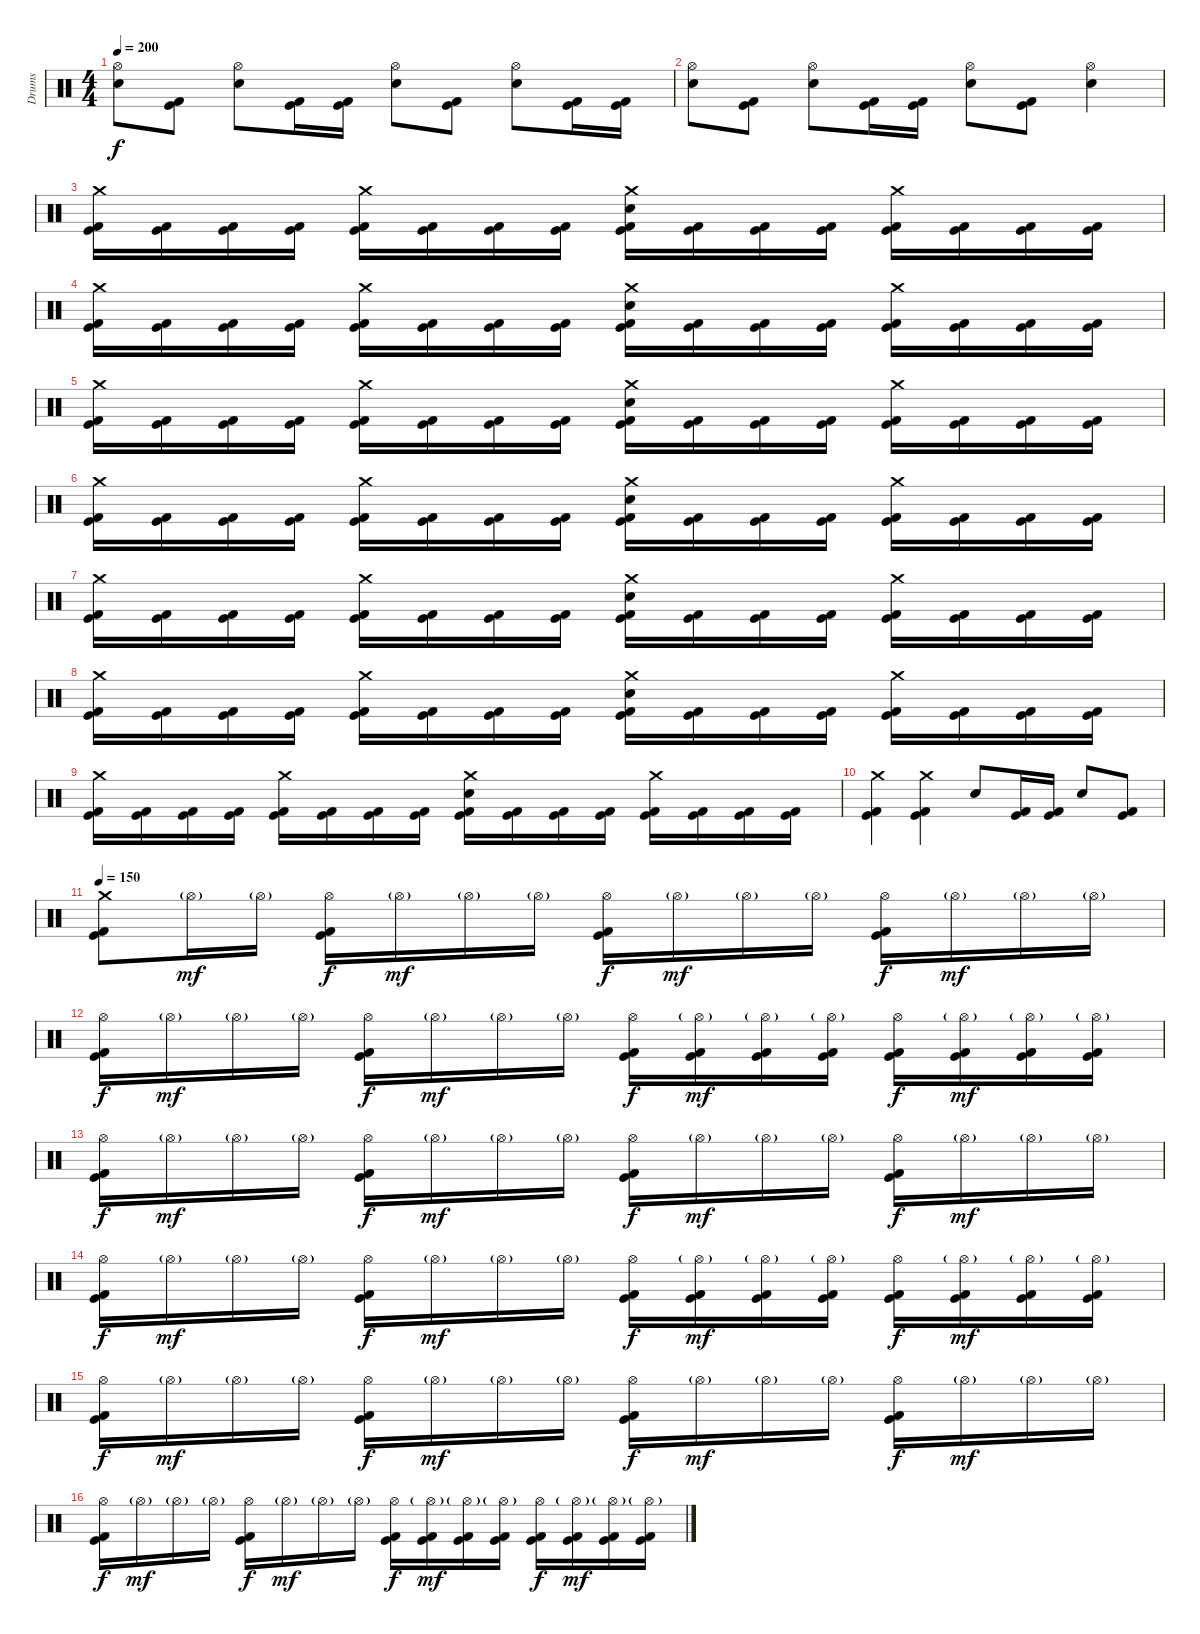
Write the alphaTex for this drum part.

\track ("Drums" "Drums") {instrument percussion}
\staff {score}
\articulation defaults
\ts (4 4)
\tempo 200
\clef neutral
\ks c
("Hi-Hat (open)" "Electric Snare (hit)").8{dy f} ("Kick (hit)" "Kick (hit) 2").8 ("Hi-Hat (open)" "Electric Snare (hit)").8 ("Kick (hit)" "Kick (hit) 2").16 ("Kick (hit)" "Kick (hit) 2").16 ("Hi-Hat (open)" "Electric Snare (hit)").8 ("Kick (hit)" "Kick (hit) 2").8 ("Hi-Hat (open)" "Electric Snare (hit)").8 ("Kick (hit)" "Kick (hit) 2").16 ("Kick (hit)" "Kick (hit) 2").16 |
("Hi-Hat (open)" "Electric Snare (hit)").8 ("Kick (hit)" "Kick (hit) 2").8 ("Hi-Hat (open)" "Electric Snare (hit)").8 ("Kick (hit)" "Kick (hit) 2").16 ("Kick (hit)" "Kick (hit) 2").16 ("Hi-Hat (open)" "Electric Snare (hit)").8 ("Kick (hit)" "Kick (hit) 2").8 ("Hi-Hat (open)" "Electric Snare (hit)").4 |
("Crash medium (hit)" "Kick (hit)" "Kick (hit) 2").16 ("Kick (hit)" "Kick (hit) 2").16 ("Kick (hit)" "Kick (hit) 2").16 ("Kick (hit)" "Kick (hit) 2").16 ("Crash medium (hit)" "Kick (hit)" "Kick (hit) 2").16 ("Kick (hit)" "Kick (hit) 2").16 ("Kick (hit)" "Kick (hit) 2").16 ("Kick (hit)" "Kick (hit) 2").16 ("Crash medium (hit)" "Electric Snare (hit)" "Kick (hit)" "Kick (hit) 2").16 ("Kick (hit)" "Kick (hit) 2").16 ("Kick (hit)" "Kick (hit) 2").16 ("Kick (hit)" "Kick (hit) 2").16 ("Crash medium (hit)" "Kick (hit)" "Kick (hit) 2").16 ("Kick (hit)" "Kick (hit) 2").16 ("Kick (hit)" "Kick (hit) 2").16 ("Kick (hit)" "Kick (hit) 2").16 |
("Crash medium (hit)" "Kick (hit)" "Kick (hit) 2").16 ("Kick (hit)" "Kick (hit) 2").16 ("Kick (hit)" "Kick (hit) 2").16 ("Kick (hit)" "Kick (hit) 2").16 ("Crash medium (hit)" "Kick (hit)" "Kick (hit) 2").16 ("Kick (hit)" "Kick (hit) 2").16 ("Kick (hit)" "Kick (hit) 2").16 ("Kick (hit)" "Kick (hit) 2").16 ("Crash medium (hit)" "Electric Snare (hit)" "Kick (hit)" "Kick (hit) 2").16 ("Kick (hit)" "Kick (hit) 2").16 ("Kick (hit)" "Kick (hit) 2").16 ("Kick (hit)" "Kick (hit) 2").16 ("Crash medium (hit)" "Kick (hit)" "Kick (hit) 2").16 ("Kick (hit)" "Kick (hit) 2").16 ("Kick (hit)" "Kick (hit) 2").16 ("Kick (hit)" "Kick (hit) 2").16 |
("Crash medium (hit)" "Kick (hit)" "Kick (hit) 2").16 ("Kick (hit)" "Kick (hit) 2").16 ("Kick (hit)" "Kick (hit) 2").16 ("Kick (hit)" "Kick (hit) 2").16 ("Crash medium (hit)" "Kick (hit)" "Kick (hit) 2").16 ("Kick (hit)" "Kick (hit) 2").16 ("Kick (hit)" "Kick (hit) 2").16 ("Kick (hit)" "Kick (hit) 2").16 ("Crash medium (hit)" "Electric Snare (hit)" "Kick (hit)" "Kick (hit) 2").16 ("Kick (hit)" "Kick (hit) 2").16 ("Kick (hit)" "Kick (hit) 2").16 ("Kick (hit)" "Kick (hit) 2").16 ("Crash medium (hit)" "Kick (hit)" "Kick (hit) 2").16 ("Kick (hit)" "Kick (hit) 2").16 ("Kick (hit)" "Kick (hit) 2").16 ("Kick (hit)" "Kick (hit) 2").16 |
("Crash medium (hit)" "Kick (hit)" "Kick (hit) 2").16 ("Kick (hit)" "Kick (hit) 2").16 ("Kick (hit)" "Kick (hit) 2").16 ("Kick (hit)" "Kick (hit) 2").16 ("Crash medium (hit)" "Kick (hit)" "Kick (hit) 2").16 ("Kick (hit)" "Kick (hit) 2").16 ("Kick (hit)" "Kick (hit) 2").16 ("Kick (hit)" "Kick (hit) 2").16 ("Crash medium (hit)" "Electric Snare (hit)" "Kick (hit)" "Kick (hit) 2").16 ("Kick (hit)" "Kick (hit) 2").16 ("Kick (hit)" "Kick (hit) 2").16 ("Kick (hit)" "Kick (hit) 2").16 ("Crash medium (hit)" "Kick (hit)" "Kick (hit) 2").16 ("Kick (hit)" "Kick (hit) 2").16 ("Kick (hit)" "Kick (hit) 2").16 ("Kick (hit)" "Kick (hit) 2").16 |
("Crash medium (hit)" "Kick (hit)" "Kick (hit) 2").16 ("Kick (hit)" "Kick (hit) 2").16 ("Kick (hit)" "Kick (hit) 2").16 ("Kick (hit)" "Kick (hit) 2").16 ("Crash medium (hit)" "Kick (hit)" "Kick (hit) 2").16 ("Kick (hit)" "Kick (hit) 2").16 ("Kick (hit)" "Kick (hit) 2").16 ("Kick (hit)" "Kick (hit) 2").16 ("Crash medium (hit)" "Electric Snare (hit)" "Kick (hit)" "Kick (hit) 2").16 ("Kick (hit)" "Kick (hit) 2").16 ("Kick (hit)" "Kick (hit) 2").16 ("Kick (hit)" "Kick (hit) 2").16 ("Crash medium (hit)" "Kick (hit)" "Kick (hit) 2").16 ("Kick (hit)" "Kick (hit) 2").16 ("Kick (hit)" "Kick (hit) 2").16 ("Kick (hit)" "Kick (hit) 2").16 |
("Crash medium (hit)" "Kick (hit)" "Kick (hit) 2").16 ("Kick (hit)" "Kick (hit) 2").16 ("Kick (hit)" "Kick (hit) 2").16 ("Kick (hit)" "Kick (hit) 2").16 ("Crash medium (hit)" "Kick (hit)" "Kick (hit) 2").16 ("Kick (hit)" "Kick (hit) 2").16 ("Kick (hit)" "Kick (hit) 2").16 ("Kick (hit)" "Kick (hit) 2").16 ("Crash medium (hit)" "Electric Snare (hit)" "Kick (hit)" "Kick (hit) 2").16 ("Kick (hit)" "Kick (hit) 2").16 ("Kick (hit)" "Kick (hit) 2").16 ("Kick (hit)" "Kick (hit) 2").16 ("Crash medium (hit)" "Kick (hit)" "Kick (hit) 2").16 ("Kick (hit)" "Kick (hit) 2").16 ("Kick (hit)" "Kick (hit) 2").16 ("Kick (hit)" "Kick (hit) 2").16 |
("Crash medium (hit)" "Kick (hit)" "Kick (hit) 2").16 ("Kick (hit)" "Kick (hit) 2").16 ("Kick (hit)" "Kick (hit) 2").16 ("Kick (hit)" "Kick (hit) 2").16 ("Crash medium (hit)" "Kick (hit)" "Kick (hit) 2").16 ("Kick (hit)" "Kick (hit) 2").16 ("Kick (hit)" "Kick (hit) 2").16 ("Kick (hit)" "Kick (hit) 2").16 ("Crash medium (hit)" "Electric Snare (hit)" "Kick (hit)" "Kick (hit) 2").16 ("Kick (hit)" "Kick (hit) 2").16 ("Kick (hit)" "Kick (hit) 2").16 ("Kick (hit)" "Kick (hit) 2").16 ("Crash medium (hit)" "Kick (hit)" "Kick (hit) 2").16 ("Kick (hit)" "Kick (hit) 2").16 ("Kick (hit)" "Kick (hit) 2").16 ("Kick (hit)" "Kick (hit) 2").16 |
("Crash medium (hit)" "Kick (hit)" "Kick (hit) 2").4 ("Crash medium (hit)" "Kick (hit)" "Kick (hit) 2").4 "Electric Snare (hit)".8 ("Kick (hit)" "Kick (hit) 2").16 ("Kick (hit)" "Kick (hit) 2").16 "Electric Snare (hit)".8 ("Kick (hit)" "Kick (hit) 2").8 |
\tempo 150
("Crash medium (hit)" "Kick (hit)" "Kick (hit) 2").8 "Hi-Hat (open)"{g}.16{dy mf} "Hi-Hat (open)"{g}.16 ("Hi-Hat (open)" "Kick (hit)" "Kick (hit) 2").16{dy f} "Hi-Hat (open)"{g}.16{dy mf} "Hi-Hat (open)"{g}.16 "Hi-Hat (open)"{g}.16 ("Hi-Hat (open)" "Kick (hit)" "Kick (hit) 2").16{dy f} "Hi-Hat (open)"{g}.16{dy mf} "Hi-Hat (open)"{g}.16 "Hi-Hat (open)"{g}.16 ("Hi-Hat (open)" "Kick (hit)" "Kick (hit) 2").16{dy f} "Hi-Hat (open)"{g}.16{dy mf} "Hi-Hat (open)"{g}.16 "Hi-Hat (open)"{g}.16 |
("Hi-Hat (open)" "Kick (hit)" "Kick (hit) 2").16{dy f} "Hi-Hat (open)"{g}.16{dy mf} "Hi-Hat (open)"{g}.16 "Hi-Hat (open)"{g}.16 ("Hi-Hat (open)" "Kick (hit)" "Kick (hit) 2").16{dy f} "Hi-Hat (open)"{g}.16{dy mf} "Hi-Hat (open)"{g}.16 "Hi-Hat (open)"{g}.16 ("Hi-Hat (open)" "Kick (hit)" "Kick (hit) 2").16{dy f} ("Hi-Hat (open)"{g} "Kick (hit)" "Kick (hit) 2").16{dy mf} ("Hi-Hat (open)"{g} "Kick (hit)" "Kick (hit) 2").16 ("Hi-Hat (open)"{g} "Kick (hit)" "Kick (hit) 2").16 ("Hi-Hat (open)" "Kick (hit)" "Kick (hit) 2").16{dy f} ("Hi-Hat (open)"{g} "Kick (hit)" "Kick (hit) 2").16{dy mf} ("Hi-Hat (open)"{g} "Kick (hit)" "Kick (hit) 2").16 ("Hi-Hat (open)"{g} "Kick (hit)" "Kick (hit) 2").16 |
("Hi-Hat (open)" "Kick (hit)" "Kick (hit) 2").16{dy f} "Hi-Hat (open)"{g}.16{dy mf} "Hi-Hat (open)"{g}.16 "Hi-Hat (open)"{g}.16 ("Hi-Hat (open)" "Kick (hit)" "Kick (hit) 2").16{dy f} "Hi-Hat (open)"{g}.16{dy mf} "Hi-Hat (open)"{g}.16 "Hi-Hat (open)"{g}.16 ("Hi-Hat (open)" "Kick (hit)" "Kick (hit) 2").16{dy f} "Hi-Hat (open)"{g}.16{dy mf} "Hi-Hat (open)"{g}.16 "Hi-Hat (open)"{g}.16 ("Hi-Hat (open)" "Kick (hit)" "Kick (hit) 2").16{dy f} "Hi-Hat (open)"{g}.16{dy mf} "Hi-Hat (open)"{g}.16 "Hi-Hat (open)"{g}.16 |
("Hi-Hat (open)" "Kick (hit)" "Kick (hit) 2").16{dy f} "Hi-Hat (open)"{g}.16{dy mf} "Hi-Hat (open)"{g}.16 "Hi-Hat (open)"{g}.16 ("Hi-Hat (open)" "Kick (hit)" "Kick (hit) 2").16{dy f} "Hi-Hat (open)"{g}.16{dy mf} "Hi-Hat (open)"{g}.16 "Hi-Hat (open)"{g}.16 ("Hi-Hat (open)" "Kick (hit)" "Kick (hit) 2").16{dy f} ("Hi-Hat (open)"{g} "Kick (hit)" "Kick (hit) 2").16{dy mf} ("Hi-Hat (open)"{g} "Kick (hit)" "Kick (hit) 2").16 ("Hi-Hat (open)"{g} "Kick (hit)" "Kick (hit) 2").16 ("Hi-Hat (open)" "Kick (hit)" "Kick (hit) 2").16{dy f} ("Hi-Hat (open)"{g} "Kick (hit)" "Kick (hit) 2").16{dy mf} ("Hi-Hat (open)"{g} "Kick (hit)" "Kick (hit) 2").16 ("Hi-Hat (open)"{g} "Kick (hit)" "Kick (hit) 2").16 |
("Hi-Hat (open)" "Kick (hit)" "Kick (hit) 2").16{dy f} "Hi-Hat (open)"{g}.16{dy mf} "Hi-Hat (open)"{g}.16 "Hi-Hat (open)"{g}.16 ("Hi-Hat (open)" "Kick (hit)" "Kick (hit) 2").16{dy f} "Hi-Hat (open)"{g}.16{dy mf} "Hi-Hat (open)"{g}.16 "Hi-Hat (open)"{g}.16 ("Hi-Hat (open)" "Kick (hit)" "Kick (hit) 2").16{dy f} "Hi-Hat (open)"{g}.16{dy mf} "Hi-Hat (open)"{g}.16 "Hi-Hat (open)"{g}.16 ("Hi-Hat (open)" "Kick (hit)" "Kick (hit) 2").16{dy f} "Hi-Hat (open)"{g}.16{dy mf} "Hi-Hat (open)"{g}.16 "Hi-Hat (open)"{g}.16 |
("Hi-Hat (open)" "Kick (hit)" "Kick (hit) 2").16{dy f} "Hi-Hat (open)"{g}.16{dy mf} "Hi-Hat (open)"{g}.16 "Hi-Hat (open)"{g}.16 ("Hi-Hat (open)" "Kick (hit)" "Kick (hit) 2").16{dy f} "Hi-Hat (open)"{g}.16{dy mf} "Hi-Hat (open)"{g}.16 "Hi-Hat (open)"{g}.16 ("Hi-Hat (open)" "Kick (hit)" "Kick (hit) 2").16{dy f} ("Hi-Hat (open)"{g} "Kick (hit)" "Kick (hit) 2").16{dy mf} ("Hi-Hat (open)"{g} "Kick (hit)" "Kick (hit) 2").16 ("Hi-Hat (open)"{g} "Kick (hit)" "Kick (hit) 2").16 ("Hi-Hat (open)" "Kick (hit)" "Kick (hit) 2").16{dy f} ("Hi-Hat (open)"{g} "Kick (hit)" "Kick (hit) 2").16{dy mf} ("Hi-Hat (open)"{g} "Kick (hit)" "Kick (hit) 2").16 ("Hi-Hat (open)"{g} "Kick (hit)" "Kick (hit) 2").16
